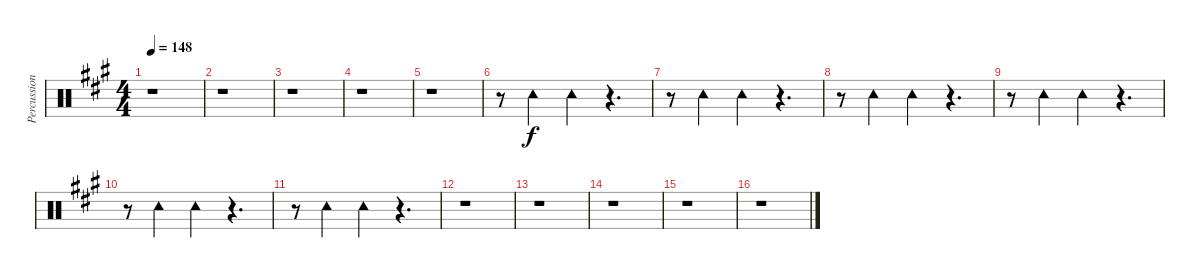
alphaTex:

\track ("Percussion" "Percussion") {instrument percussion}
\staff {score}
\articulation defaults
\ts (4 4)
\tempo 148
\clef neutral
\ks a
r.1{dy f} |
r.1 |
r.1 |
r.1 |
r.1 |
r.8 "Tambourine (hit)".4 "Tambourine (hit)".4 r.4{d} |
r.8 "Tambourine (hit)".4 "Tambourine (hit)".4 r.4{d} |
r.8 "Tambourine (hit)".4 "Tambourine (hit)".4 r.4{d} |
r.8 "Tambourine (hit)".4 "Tambourine (hit)".4 r.4{d} |
r.8 "Tambourine (hit)".4 "Tambourine (hit)".4 r.4{d} |
r.8 "Tambourine (hit)".4 "Tambourine (hit)".4 r.4{d} |
r.1 |
r.1 |
r.1 |
r.1 |
r.1
